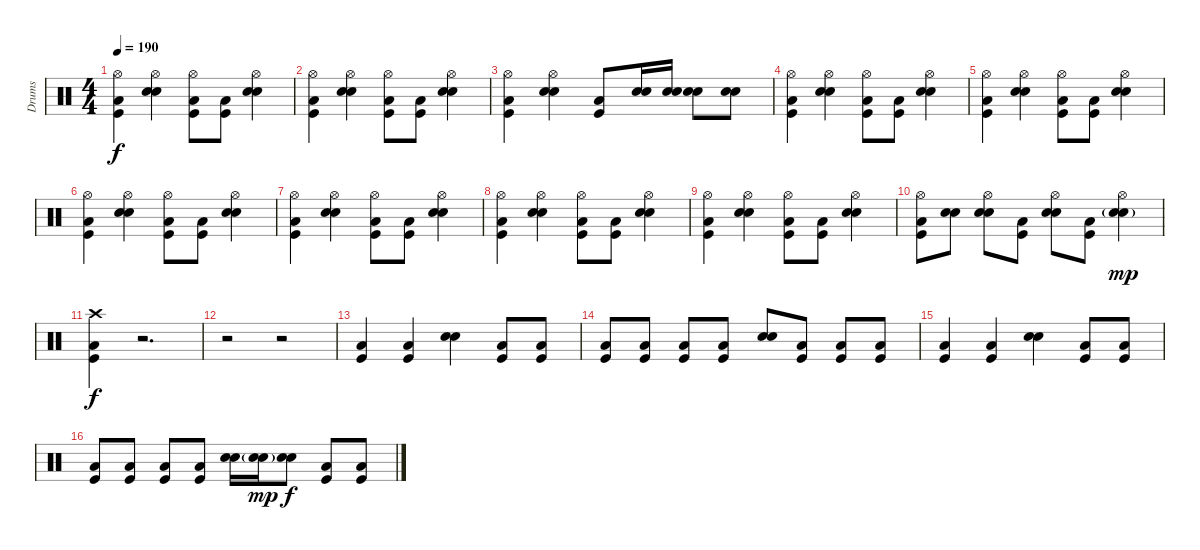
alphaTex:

\track ("Drums" "Drums") {instrument percussion}
\staff {score}
\articulation defaults
\ts (4 4)
\tempo 190
\clef neutral
\ks c
("Hi-Hat (open)" "Kick (hit)" "Low Tom (hit)").4{dy f} ("Hi-Hat (open)" "Snare (hit) 2" "Electric Snare (hit)").4 ("Hi-Hat (open)" "Kick (hit)" "Low Tom (hit)").8 ("Kick (hit)" "Low Tom (hit)").8 ("Hi-Hat (open)" "Snare (hit) 2" "Electric Snare (hit)").4 |
("Hi-Hat (open)" "Kick (hit)" "Low Tom (hit)").4 ("Hi-Hat (open)" "Snare (hit) 2" "Electric Snare (hit)").4 ("Hi-Hat (open)" "Kick (hit)" "Low Tom (hit)").8 ("Kick (hit)" "Low Tom (hit)").8 ("Hi-Hat (open)" "Snare (hit) 2" "Electric Snare (hit)").4 |
("Hi-Hat (open)" "Kick (hit)" "Low Tom (hit)").4 ("Hi-Hat (open)" "Snare (hit) 2" "Electric Snare (hit)").4 ("Kick (hit)" "Low Tom (hit)").8 ("Snare (hit) 2" "Electric Snare (hit)").16 ("Snare (hit) 2" "Electric Snare (hit)").16 ("Snare (hit) 2" "Electric Snare (hit)").8 ("Snare (hit) 2" "Electric Snare (hit)").8 |
("Hi-Hat (open)" "Kick (hit)" "Low Tom (hit)").4 ("Hi-Hat (open)" "Snare (hit) 2" "Electric Snare (hit)").4 ("Hi-Hat (open)" "Kick (hit)" "Low Tom (hit)").8 ("Kick (hit)" "Low Tom (hit)").8 ("Hi-Hat (open)" "Snare (hit) 2" "Electric Snare (hit)").4 |
("Hi-Hat (open)" "Kick (hit)" "Low Tom (hit)").4 ("Hi-Hat (open)" "Snare (hit) 2" "Electric Snare (hit)").4 ("Hi-Hat (open)" "Kick (hit)" "Low Tom (hit)").8 ("Kick (hit)" "Low Tom (hit)").8 ("Hi-Hat (open)" "Snare (hit) 2" "Electric Snare (hit)").4 |
("Hi-Hat (open)" "Kick (hit)" "Low Tom (hit)").4 ("Hi-Hat (open)" "Snare (hit) 2" "Electric Snare (hit)").4 ("Hi-Hat (open)" "Kick (hit)" "Low Tom (hit)").8 ("Kick (hit)" "Low Tom (hit)").8 ("Hi-Hat (open)" "Snare (hit) 2" "Electric Snare (hit)").4 |
("Hi-Hat (open)" "Kick (hit)" "Low Tom (hit)").4 ("Hi-Hat (open)" "Snare (hit) 2" "Electric Snare (hit)").4 ("Hi-Hat (open)" "Kick (hit)" "Low Tom (hit)").8 ("Kick (hit)" "Low Tom (hit)").8 ("Hi-Hat (open)" "Snare (hit) 2" "Electric Snare (hit)").4 |
("Hi-Hat (open)" "Kick (hit)" "Low Tom (hit)").4 ("Hi-Hat (open)" "Snare (hit) 2" "Electric Snare (hit)").4 ("Hi-Hat (open)" "Kick (hit)" "Low Tom (hit)").8 ("Kick (hit)" "Low Tom (hit)").8 ("Hi-Hat (open)" "Snare (hit) 2" "Electric Snare (hit)").4 |
("Hi-Hat (open)" "Kick (hit)" "Low Tom (hit)").4 ("Hi-Hat (open)" "Snare (hit) 2" "Electric Snare (hit)").4 ("Hi-Hat (open)" "Kick (hit)" "Low Tom (hit)").8 ("Kick (hit)" "Low Tom (hit)").8 ("Hi-Hat (open)" "Snare (hit) 2" "Electric Snare (hit)").4 |
("Hi-Hat (open)" "Kick (hit)" "Low Tom (hit)").8 ("Snare (hit) 2" "Electric Snare (hit)").8 ("Hi-Hat (open)" "Snare (hit) 2" "Electric Snare (hit)").8 ("Kick (hit)" "Low Tom (hit)").8 ("Hi-Hat (open)" "Snare (hit) 2" "Electric Snare (hit)").8 ("Kick (hit)" "Low Tom (hit)").8 ("Hi-Hat (open)" "Snare (hit) 2"{g} "Electric Snare (hit)"{g}).4{dy mp} |
("Crash high (hit)" "Kick (hit)" "Low Tom (hit)").4{dy f} r.2{d} |
r.2 r.2 |
("Kick (hit)" "Low Tom (hit)").4 ("Kick (hit)" "Low Tom (hit)").4 ("Snare (hit) 2" "Electric Snare (hit)").4 ("Kick (hit)" "Low Tom (hit)").8 ("Kick (hit)" "Low Tom (hit)").8 |
("Kick (hit)" "Low Tom (hit)").8 ("Kick (hit)" "Low Tom (hit)").8 ("Kick (hit)" "Low Tom (hit)").8 ("Kick (hit)" "Low Tom (hit)").8 ("Snare (hit) 2" "Electric Snare (hit)").8 ("Kick (hit)" "Low Tom (hit)").8 ("Kick (hit)" "Low Tom (hit)").8 ("Kick (hit)" "Low Tom (hit)").8 |
("Kick (hit)" "Low Tom (hit)").4 ("Kick (hit)" "Low Tom (hit)").4 ("Snare (hit) 2" "Electric Snare (hit)").4 ("Kick (hit)" "Low Tom (hit)").8 ("Kick (hit)" "Low Tom (hit)").8 |
("Kick (hit)" "Low Tom (hit)").8 ("Kick (hit)" "Low Tom (hit)").8 ("Kick (hit)" "Low Tom (hit)").8 ("Kick (hit)" "Low Tom (hit)").8 ("Snare (hit) 2" "Electric Snare (hit)").16 ("Snare (hit) 2"{g} "Electric Snare (hit)"{g}).16{dy mp} ("Snare (hit) 2" "Electric Snare (hit)").8{dy f} ("Kick (hit)" "Low Tom (hit)").8 ("Kick (hit)" "Low Tom (hit)").8
